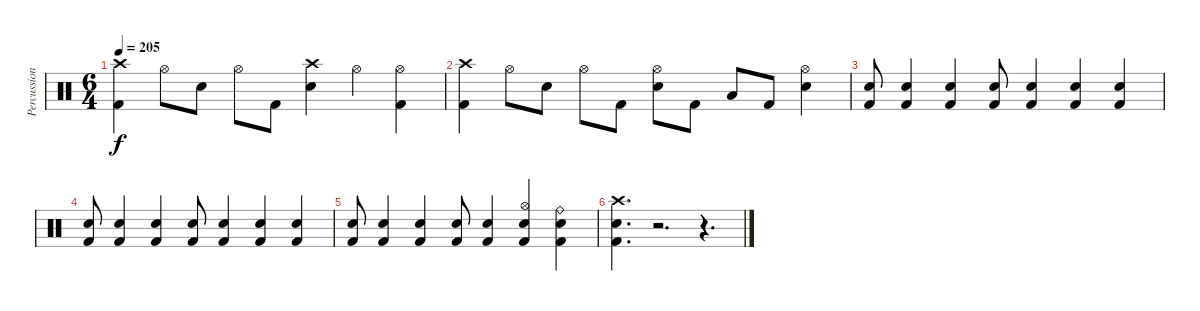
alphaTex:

\track ("Percussion" "Percussion") {instrument percussion}
\staff {score}
\articulation defaults
\ts (6 4)
\tempo 205
\clef neutral
\ks c
("Crash high (hit)" "Kick (hit) 2").4{dy f} "Hi-Hat (open)".8 "Snare (hit) 2".8 "Hi-Hat (open)".8 "Kick (hit) 2".8 ("Crash high (hit)" "Snare (hit) 2").4 "Hi-Hat (open)".4 ("Hi-Hat (open)" "Kick (hit) 2").4 |
("Crash high (hit)" "Kick (hit) 2").4 "Hi-Hat (open)".8 "Snare (hit) 2".8 "Hi-Hat (open)".8 "Kick (hit) 2".8 ("Hi-Hat (open)" "Snare (hit) 2").8 "Kick (hit) 2".8 "Low Tom (hit)".8 "Kick (hit) 2".8 ("Hi-Hat (open)" "Snare (hit) 2").4 |
("Snare (hit) 2" "Kick (hit) 2").8 ("Snare (hit) 2" "Kick (hit) 2").4 ("Snare (hit) 2" "Kick (hit) 2").4 ("Snare (hit) 2" "Kick (hit) 2").8 ("Snare (hit) 2" "Kick (hit) 2").4 ("Snare (hit) 2" "Kick (hit) 2").4 ("Snare (hit) 2" "Kick (hit) 2").4 |
("Snare (hit) 2" "Kick (hit) 2").8 ("Snare (hit) 2" "Kick (hit) 2").4 ("Snare (hit) 2" "Kick (hit) 2").4 ("Snare (hit) 2" "Kick (hit) 2").8 ("Snare (hit) 2" "Kick (hit) 2").4 ("Snare (hit) 2" "Kick (hit) 2").4 ("Snare (hit) 2" "Kick (hit) 2").4 |
("Snare (hit) 2" "Kick (hit) 2").8 ("Snare (hit) 2" "Kick (hit) 2").4 ("Snare (hit) 2" "Kick (hit) 2").4 ("Snare (hit) 2" "Kick (hit) 2").8 ("Snare (hit) 2" "Kick (hit) 2").4 ("Hi-Hat (open)" "Snare (hit) 2" "Kick (hit) 2").4 ("Ride (bell)" "Snare (hit) 2" "Kick (hit) 2").4 |
("Crash high (hit)" "Snare (hit) 2" "Kick (hit) 2").4{d} r.2{d} r.4{d}
